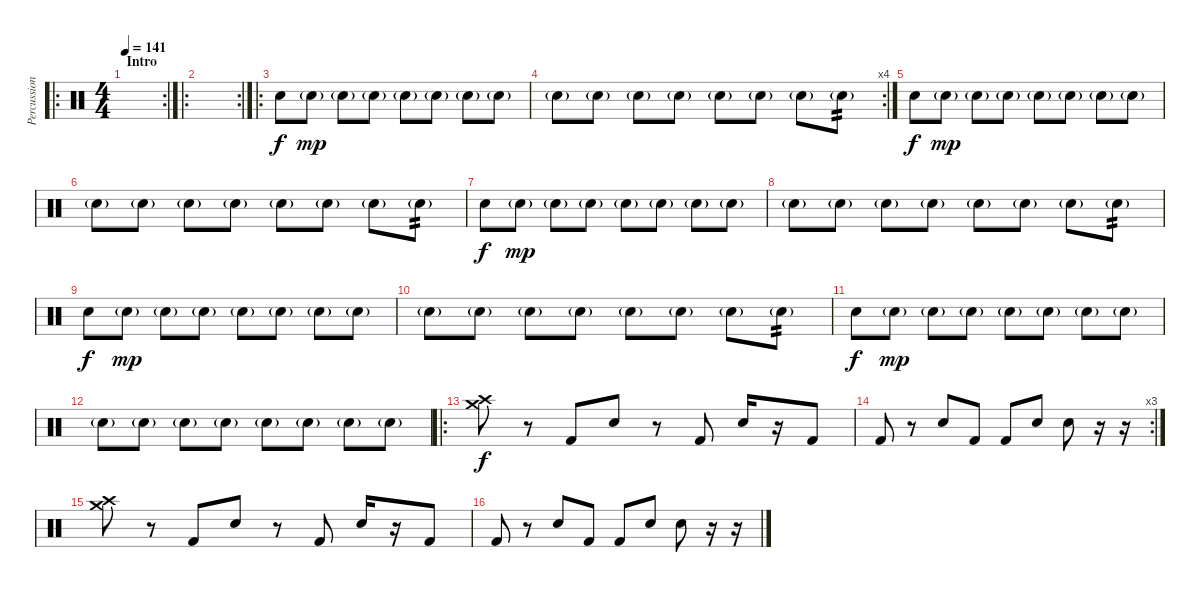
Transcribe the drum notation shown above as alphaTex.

\track ("Percussion" "Percussion") {instrument percussion}
\staff {score}
\articulation defaults
\ro
\rc 2
\ts (4 4)
\section ("" "Intro")
\tempo 141
\clef neutral
\ks c
|
\ro
\rc 2
|
\ro "Electric Snare (hit)".8{volume 7} "Electric Snare (hit)"{g}.8{dy mp volume 7} "Electric Snare (hit)"{g}.8{volume 7} "Electric Snare (hit)"{g}.8{volume 7} "Electric Snare (hit)"{g}.8{volume 7} "Electric Snare (hit)"{g}.8{volume 7} "Electric Snare (hit)"{g}.8{volume 7} "Electric Snare (hit)"{g}.8{volume 7}
|
\rc 4 "Electric Snare (hit)"{g}.8{volume 8} "Electric Snare (hit)"{g}.8{volume 8} "Electric Snare (hit)"{g}.8{volume 10} "Electric Snare (hit)"{g}.8{volume 10} "Electric Snare (hit)"{g}.8{volume 10} "Electric Snare (hit)"{g}.8{volume 12} "Electric Snare (hit)"{g}.8{volume 12} "Electric Snare (hit)"{g}.8{tp 2 volume 15}
|
"Electric Snare (hit)".8{dy f volume 7} "Electric Snare (hit)"{g}.8{dy mp volume 7} "Electric Snare (hit)"{g}.8{volume 7} "Electric Snare (hit)"{g}.8{volume 7} "Electric Snare (hit)"{g}.8{volume 7} "Electric Snare (hit)"{g}.8{volume 7} "Electric Snare (hit)"{g}.8{volume 7} "Electric Snare (hit)"{g}.8{volume 7} |
"Electric Snare (hit)"{g}.8{volume 8} "Electric Snare (hit)"{g}.8{volume 8} "Electric Snare (hit)"{g}.8{volume 10} "Electric Snare (hit)"{g}.8{volume 10} "Electric Snare (hit)"{g}.8{volume 10} "Electric Snare (hit)"{g}.8{volume 12} "Electric Snare (hit)"{g}.8{volume 12} "Electric Snare (hit)"{g}.8{tp 2 volume 15} |
"Electric Snare (hit)".8{dy f volume 7} "Electric Snare (hit)"{g}.8{dy mp volume 7} "Electric Snare (hit)"{g}.8{volume 7} "Electric Snare (hit)"{g}.8{volume 7} "Electric Snare (hit)"{g}.8{volume 7} "Electric Snare (hit)"{g}.8{volume 7} "Electric Snare (hit)"{g}.8{volume 7} "Electric Snare (hit)"{g}.8{volume 7} |
"Electric Snare (hit)"{g}.8{volume 8} "Electric Snare (hit)"{g}.8{volume 8} "Electric Snare (hit)"{g}.8{volume 10} "Electric Snare (hit)"{g}.8{volume 10} "Electric Snare (hit)"{g}.8{volume 10} "Electric Snare (hit)"{g}.8{volume 12} "Electric Snare (hit)"{g}.8{volume 12} "Electric Snare (hit)"{g}.8{tp 2 volume 15} |
"Electric Snare (hit)".8{dy f volume 7} "Electric Snare (hit)"{g}.8{dy mp volume 7} "Electric Snare (hit)"{g}.8{volume 7} "Electric Snare (hit)"{g}.8{volume 7} "Electric Snare (hit)"{g}.8{volume 7} "Electric Snare (hit)"{g}.8{volume 7} "Electric Snare (hit)"{g}.8{volume 7} "Electric Snare (hit)"{g}.8{volume 7} |
"Electric Snare (hit)"{g}.8{volume 8} "Electric Snare (hit)"{g}.8{volume 8} "Electric Snare (hit)"{g}.8{volume 10} "Electric Snare (hit)"{g}.8{volume 10} "Electric Snare (hit)"{g}.8{volume 10} "Electric Snare (hit)"{g}.8{volume 12} "Electric Snare (hit)"{g}.8{volume 12} "Electric Snare (hit)"{g}.8{tp 2 volume 15} |
"Electric Snare (hit)".8{dy f volume 7} "Electric Snare (hit)"{g}.8{dy mp volume 7} "Electric Snare (hit)"{g}.8{volume 7} "Electric Snare (hit)"{g}.8{volume 7} "Electric Snare (hit)"{g}.8{volume 7} "Electric Snare (hit)"{g}.8{volume 9} "Electric Snare (hit)"{g}.8{volume 9} "Electric Snare (hit)"{g}.8{volume 10} |
"Electric Snare (hit)"{g}.8{volume 10} "Electric Snare (hit)"{g}.8{volume 10} "Electric Snare (hit)"{g}.8{volume 12} "Electric Snare (hit)"{g}.8{volume 12} "Electric Snare (hit)"{g}.8{volume 14} "Electric Snare (hit)"{g}.8{volume 14} "Electric Snare (hit)"{g}.8{volume 15} "Electric Snare (hit)"{g}.8{volume 15} |
\ro
("Crash high (hit)" "Crash medium (hit)").8{dy f} r.8 "Kick (hit) 2".8 "Electric Snare (hit)".8 r.8 "Kick (hit) 2".8 "Electric Snare (hit)".16 r.16 "Kick (hit) 2".8 |
\rc 3 "Kick (hit) 2".8
r.8 "Electric Snare (hit)".8 "Kick (hit) 2".8 "Kick (hit) 2".8 "Electric Snare (hit)".8 "Electric Snare (hit)".8 r.16 r.16 |
("Crash high (hit)" "Crash medium (hit)").8 r.8 "Kick (hit) 2".8 "Electric Snare (hit)".8 r.8 "Kick (hit) 2".8 "Electric Snare (hit)".16 r.16 "Kick (hit) 2".8 |
"Kick (hit) 2".8 r.8 "Electric Snare (hit)".8 "Kick (hit) 2".8 "Kick (hit) 2".8 "Electric Snare (hit)".8 "Electric Snare (hit)".8 r.16 r.16
